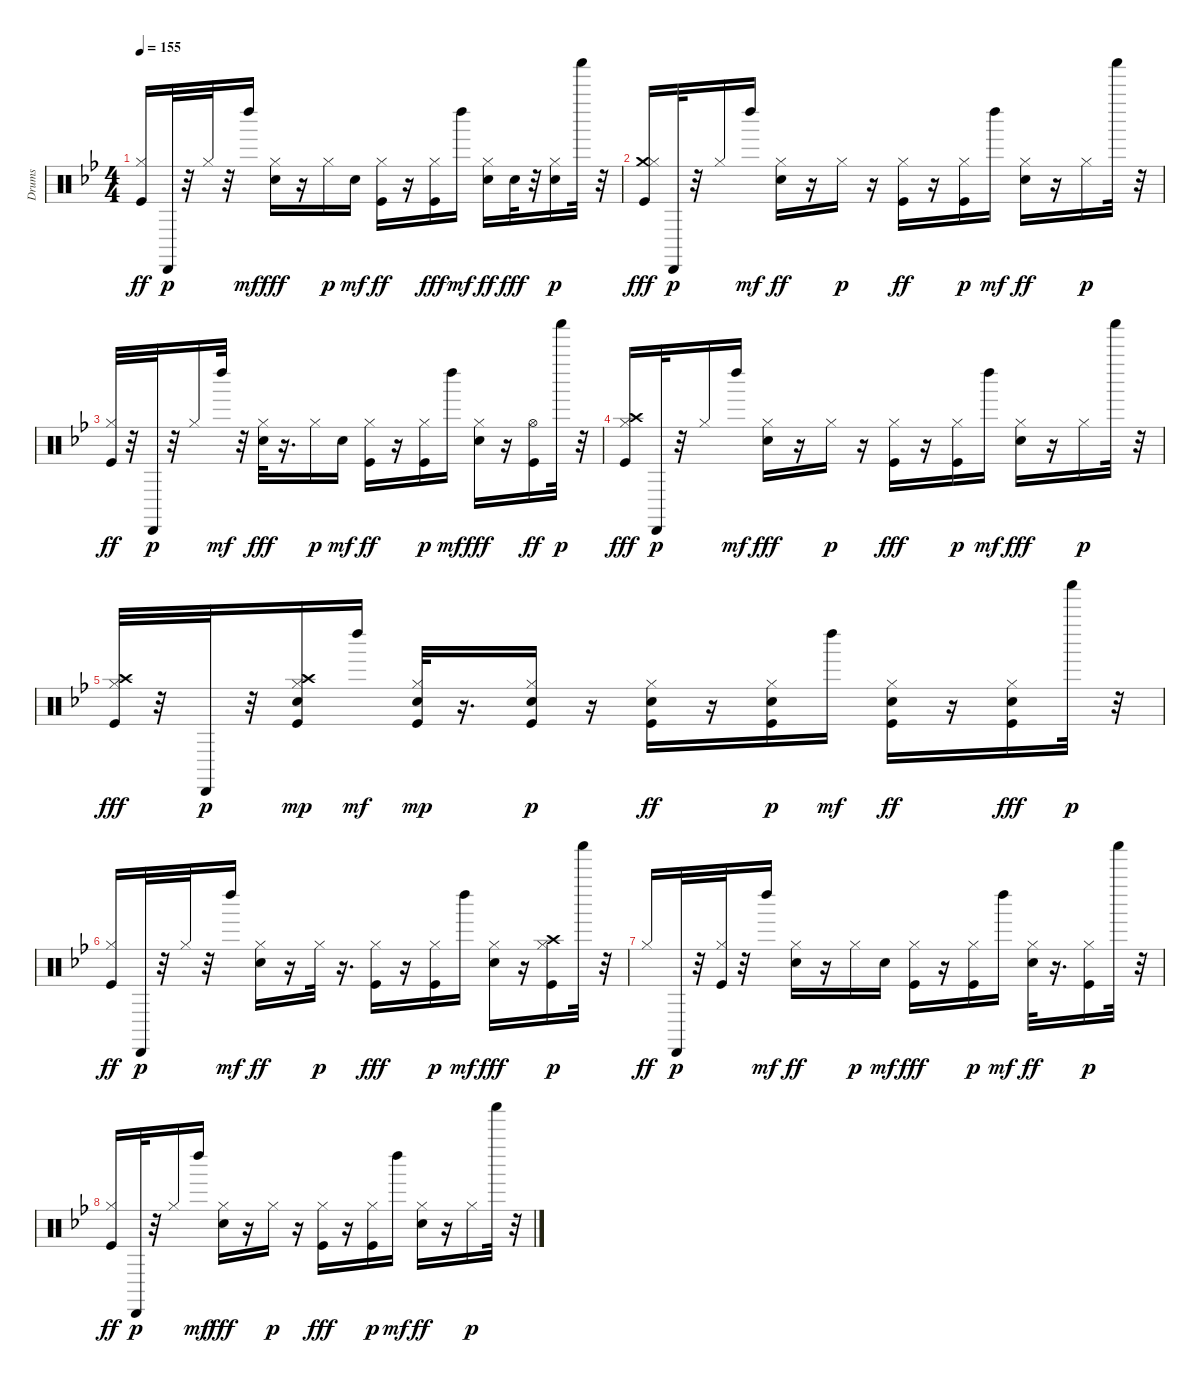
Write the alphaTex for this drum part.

\track ("Drums" "Drums") {instrument percussion}
\staff {score}
\articulation defaults
\ts (4 4)
\tempo 155
\clef neutral
\ks bb
("Kick (hit)" "Hi-Hat (closed)").16{dy ff} "Cabasa (hit)".32{dy p} r.32 "Hi-Hat (closed)".32 r.32 "Left Maraca (hit)".16{dy mf} ("Hi-Hat (closed)" "Electric Snare (hit)").16{dy fff} r.16 "Hi-Hat (closed)".16{dy p} "Electric Snare (hit)".16{dy mf} ("Kick (hit)" "Hi-Hat (closed)").16{dy ff} r.16 ("Hi-Hat (closed)" "Kick (hit)").16{dy fff} "Left Maraca (hit)".16{dy mf} ("Electric Snare (hit)" "Hi-Hat (closed)").16{dy ff} "Electric Snare (hit)".32{dy fff} r.32 ("Electric Snare (hit)" "Hi-Hat (closed)").16{dy p} "Shaker (hit)".32 r.32 |
("Crash medium (hit)" "Hi-Hat (closed)" "Kick (hit)").16{dy fff} "Cabasa (hit)".32{dy p} r.32 "Hi-Hat (closed)".16 "Left Maraca (hit)".16{dy mf} ("Electric Snare (hit)" "Hi-Hat (closed)").16{dy ff} r.16 "Hi-Hat (closed)".16{dy p} r.16 ("Kick (hit)" "Hi-Hat (closed)").16{dy ff} r.16 ("Kick (hit)" "Hi-Hat (closed)").16{dy p} "Left Maraca (hit)".16{dy mf} ("Electric Snare (hit)" "Hi-Hat (closed)").16{dy ff} r.16 "Hi-Hat (closed)".16{dy p} "Shaker (hit)".32 r.32 |
("Kick (hit)" "Hi-Hat (closed)").32{dy ff} r.32 "Cabasa (hit)".32{dy p} r.32 "Hi-Hat (closed)".16 "Left Maraca (hit)".32{dy mf} r.32 ("Hi-Hat (closed)" "Electric Snare (hit)").32{dy fff} r.16{d} "Hi-Hat (closed)".16{dy p} "Electric Snare (hit)".16{dy mf} ("Kick (hit)" "Hi-Hat (closed)").16{dy ff} r.16 ("Kick (hit)" "Hi-Hat (closed)").16{dy p} "Left Maraca (hit)".16{dy mf} ("Hi-Hat (closed)" "Electric Snare (hit)").16{dy fff} r.16 ("Kick (hit)" "Hi-Hat (open)").16{dy ff} "Shaker (hit)".32{dy p} r.32 |
("Crash high (hit)" "Hi-Hat (closed)" "Kick (hit)").16{dy fff} "Cabasa (hit)".32{dy p} r.32 "Hi-Hat (closed)".16 "Left Maraca (hit)".16{dy mf} ("Hi-Hat (closed)" "Electric Snare (hit)").16{dy fff} r.16 "Hi-Hat (closed)".16{dy p} r.16 ("Hi-Hat (closed)" "Kick (hit)").16{dy fff} r.16 ("Kick (hit)" "Hi-Hat (closed)").16{dy p} "Left Maraca (hit)".16{dy mf} ("Hi-Hat (closed)" "Electric Snare (hit)").16{dy fff} r.16 "Hi-Hat (closed)".16{dy p} "Shaker (hit)".32 r.32 |
("Crash high (hit)" "Hi-Hat (closed)" "Kick (hit)").32{dy fff} r.32 "Cabasa (hit)".32{dy p} r.32 ("Crash high (hit)" "Kick (hit)" "Hi-Hat (closed)" "Electric Snare (hit)").16{dy mp} "Left Maraca (hit)".16{dy mf} ("Kick (hit)" "Hi-Hat (closed)" "Electric Snare (hit)").32{dy mp} r.16{d} ("Electric Snare (hit)" "Kick (hit)" "Hi-Hat (closed)").16{dy p} r.16 ("Kick (hit)" "Electric Snare (hit)" "Hi-Hat (closed)").16{dy ff} r.16 ("Hi-Hat (closed)" "Electric Snare (hit)" "Kick (hit)").16{dy p} "Left Maraca (hit)".16{dy mf} ("Electric Snare (hit)" "Kick (hit)" "Hi-Hat (closed)").16{dy ff} r.16 ("Electric Snare (hit)" "Hi-Hat (closed)" "Kick (hit)").16{dy fff} "Shaker (hit)".32{dy p} r.32 |
("Kick (hit)" "Hi-Hat (closed)").16{dy ff} "Cabasa (hit)".32{dy p} r.32 "Hi-Hat (closed)".32 r.32 "Left Maraca (hit)".16{dy mf} ("Electric Snare (hit)" "Hi-Hat (closed)").16{dy ff} r.16 "Hi-Hat (closed)".32{dy p} r.16{d} ("Hi-Hat (closed)" "Kick (hit)").16{dy fff} r.16 ("Kick (hit)" "Hi-Hat (closed)").16{dy p} "Left Maraca (hit)".16{dy mf} ("Hi-Hat (closed)" "Electric Snare (hit)").16{dy fff} r.16 ("Kick (hit)" "Crash high (hit)" "Hi-Hat (closed)").16{dy p} "Shaker (hit)".32 r.32 |
"Hi-Hat (closed)".16{dy ff} "Cabasa (hit)".32{dy p} r.32 ("Kick (hit)" "Hi-Hat (closed)").32 r.32 "Left Maraca (hit)".16{dy mf} ("Electric Snare (hit)" "Hi-Hat (closed)").16{dy ff} r.16 "Hi-Hat (closed)".16{dy p} "Electric Snare (hit)".16{dy mf} ("Hi-Hat (closed)" "Kick (hit)").16{dy fff} r.16 ("Kick (hit)" "Hi-Hat (closed)").16{dy p} "Left Maraca (hit)".16{dy mf} ("Electric Snare (hit)" "Hi-Hat (closed)").32{dy ff} r.16{d} ("Kick (hit)" "Hi-Hat (closed)").16{dy p} "Shaker (hit)".32 r.32 |
("Kick (hit)" "Hi-Hat (closed)").16{dy ff} "Cabasa (hit)".32{dy p} r.32 "Hi-Hat (closed)".16 "Left Maraca (hit)".16{dy mf} ("Hi-Hat (closed)" "Electric Snare (hit)").16{dy fff} r.16 "Hi-Hat (closed)".16{dy p} r.16 ("Hi-Hat (closed)" "Kick (hit)").16{dy fff} r.16 ("Kick (hit)" "Hi-Hat (closed)").16{dy p} "Left Maraca (hit)".16{dy mf} ("Electric Snare (hit)" "Hi-Hat (closed)").16{dy ff} r.16 "Hi-Hat (closed)".16{dy p} "Shaker (hit)".32 r.32
